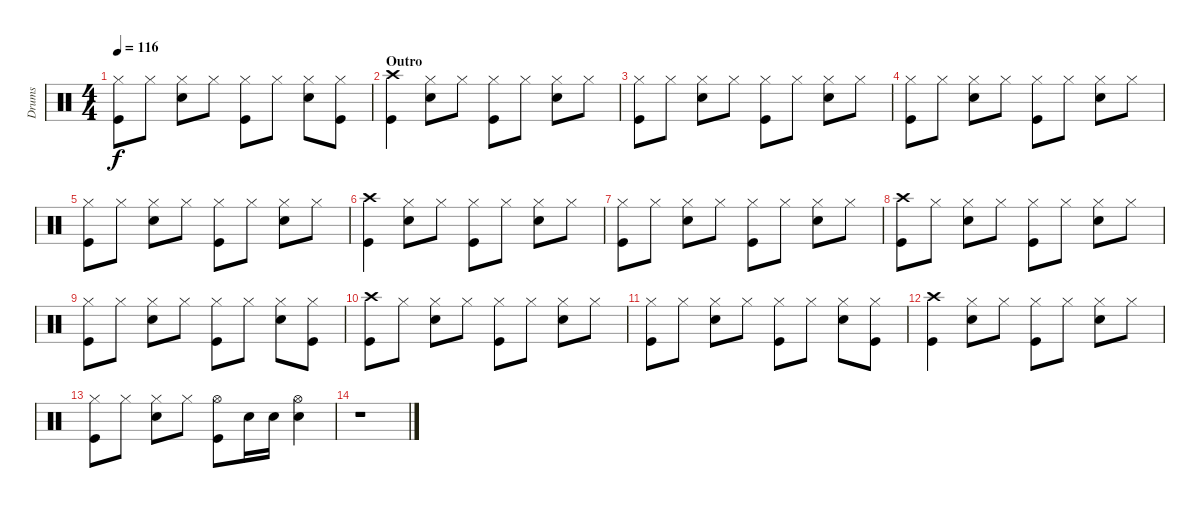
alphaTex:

\track ("Drums" "Drums") {instrument percussion}
\staff {score}
\articulation defaults
\ts (4 4)
\tempo 116
\clef neutral
\ks c
("Hi-Hat (closed)" "Kick (hit)").8{dy f} "Hi-Hat (closed)".8 ("Hi-Hat (closed)" "Snare (hit) 2").8 "Hi-Hat (closed)".8 ("Hi-Hat (closed)" "Kick (hit)").8 "Hi-Hat (closed)".8 ("Hi-Hat (closed)" "Snare (hit) 2").8 ("Hi-Hat (closed)" "Kick (hit)").8 |
\section ("" "Outro")
("Crash high (hit)" "Kick (hit)").4 ("Hi-Hat (closed)" "Snare (hit) 2").8 "Hi-Hat (closed)".8 ("Hi-Hat (closed)" "Kick (hit)").8 "Hi-Hat (closed)".8 ("Hi-Hat (closed)" "Snare (hit) 2").8 "Hi-Hat (closed)".8 |
("Hi-Hat (closed)" "Kick (hit)").8 "Hi-Hat (closed)".8 ("Hi-Hat (closed)" "Snare (hit) 2").8 "Hi-Hat (closed)".8 ("Hi-Hat (closed)" "Kick (hit)").8 "Hi-Hat (closed)".8 ("Hi-Hat (closed)" "Snare (hit) 2").8 "Hi-Hat (closed)".8 |
("Hi-Hat (closed)" "Kick (hit)").8 "Hi-Hat (closed)".8 ("Hi-Hat (closed)" "Snare (hit) 2").8 "Hi-Hat (closed)".8 ("Hi-Hat (closed)" "Kick (hit)").8 "Hi-Hat (closed)".8 ("Hi-Hat (closed)" "Snare (hit) 2").8 "Hi-Hat (closed)".8 |
("Hi-Hat (closed)" "Kick (hit)").8 "Hi-Hat (closed)".8 ("Hi-Hat (closed)" "Snare (hit) 2").8 "Hi-Hat (closed)".8 ("Hi-Hat (closed)" "Kick (hit)").8 "Hi-Hat (closed)".8 ("Hi-Hat (closed)" "Snare (hit) 2").8 "Hi-Hat (closed)".8 |
("Crash high (hit)" "Kick (hit)").4 ("Hi-Hat (closed)" "Snare (hit) 2").8 "Hi-Hat (closed)".8 ("Hi-Hat (closed)" "Kick (hit)").8 "Hi-Hat (closed)".8 ("Hi-Hat (closed)" "Snare (hit) 2").8 "Hi-Hat (closed)".8 |
("Hi-Hat (closed)" "Kick (hit)").8 "Hi-Hat (closed)".8 ("Hi-Hat (closed)" "Snare (hit) 2").8 "Hi-Hat (closed)".8 ("Hi-Hat (closed)" "Kick (hit)").8 "Hi-Hat (closed)".8 ("Hi-Hat (closed)" "Snare (hit) 2").8 "Hi-Hat (closed)".8 |
("Crash high (hit)" "Kick (hit)").8 "Hi-Hat (closed)".8 ("Hi-Hat (closed)" "Snare (hit) 2").8 "Hi-Hat (closed)".8 ("Hi-Hat (closed)" "Kick (hit)").8 "Hi-Hat (closed)".8 ("Hi-Hat (closed)" "Snare (hit) 2").8 "Hi-Hat (closed)".8 |
("Hi-Hat (closed)" "Kick (hit)").8 "Hi-Hat (closed)".8 ("Hi-Hat (closed)" "Snare (hit) 2").8 "Hi-Hat (closed)".8 ("Hi-Hat (closed)" "Kick (hit)").8 "Hi-Hat (closed)".8 ("Hi-Hat (closed)" "Snare (hit) 2").8 ("Hi-Hat (closed)" "Kick (hit)").8 |
("Crash high (hit)" "Kick (hit)").8 "Hi-Hat (closed)".8 ("Hi-Hat (closed)" "Snare (hit) 2").8 "Hi-Hat (closed)".8 ("Hi-Hat (closed)" "Kick (hit)").8 "Hi-Hat (closed)".8 ("Hi-Hat (closed)" "Snare (hit) 2").8 "Hi-Hat (closed)".8 |
("Hi-Hat (closed)" "Kick (hit)").8 "Hi-Hat (closed)".8 ("Hi-Hat (closed)" "Snare (hit) 2").8 "Hi-Hat (closed)".8 ("Hi-Hat (closed)" "Kick (hit)").8 "Hi-Hat (closed)".8 ("Hi-Hat (closed)" "Snare (hit) 2").8 ("Hi-Hat (closed)" "Kick (hit)").8 |
("Crash high (hit)" "Kick (hit)").4 ("Hi-Hat (closed)" "Snare (hit) 2").8 "Hi-Hat (closed)".8 ("Hi-Hat (closed)" "Kick (hit)").8 "Hi-Hat (closed)".8 ("Hi-Hat (closed)" "Snare (hit) 2").8 "Hi-Hat (closed)".8 |
("Hi-Hat (closed)" "Kick (hit)").8 "Hi-Hat (closed)".8 ("Hi-Hat (closed)" "Snare (hit) 2").8 "Hi-Hat (closed)".8 ("Hi-Hat (open)" "Kick (hit)").8 "Snare (hit) 2".16 "Snare (hit) 2".16 ("Hi-Hat (open)" "Snare (hit) 2").4 |
r.1
